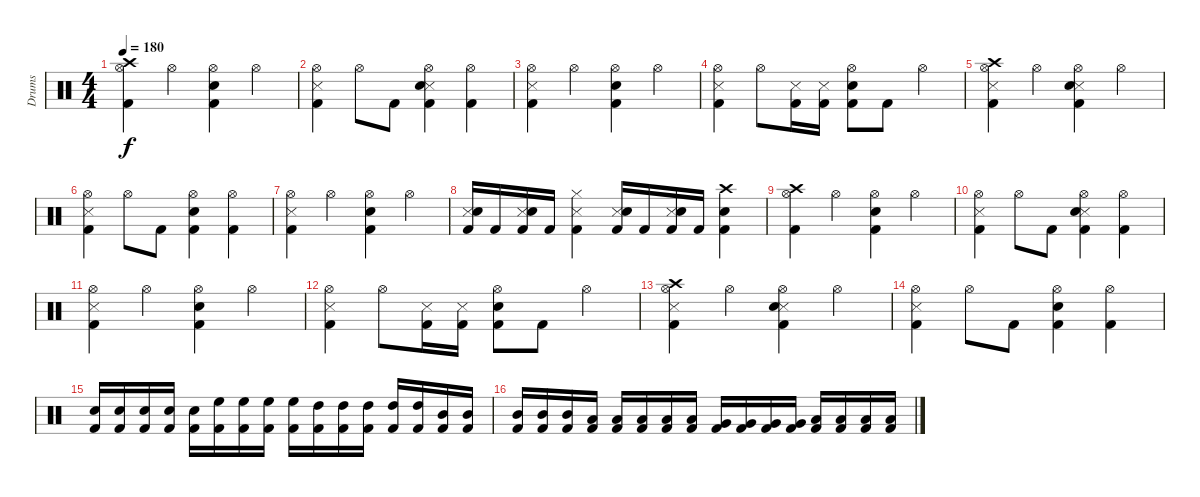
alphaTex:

\track ("Drums" "Drums") {instrument percussion}
\staff {score}
\articulation defaults
\ts (4 4)
\tempo 180
\clef neutral
\ks c
("Crash high (hit)" "Hi-Hat (open)" "Kick (hit) 2").4{dy f} "Hi-Hat (open)".4 ("Hi-Hat (open)" "Electric Snare (hit)" "Kick (hit) 2").4 "Hi-Hat (open)".4 |
("Snare (side stick) 3" "Hi-Hat (open)" "Kick (hit) 2").4 "Hi-Hat (open)".8 "Kick (hit) 2".8 ("Snare (side stick) 3" "Hi-Hat (open)" "Electric Snare (hit)" "Kick (hit) 2").4 ("Hi-Hat (open)" "Kick (hit) 2").4 |
("Snare (side stick) 3" "Hi-Hat (open)" "Kick (hit) 2").4 "Hi-Hat (open)".4 ("Hi-Hat (open)" "Electric Snare (hit)" "Kick (hit) 2").4 "Hi-Hat (open)".4 |
("Snare (side stick) 3" "Hi-Hat (open)" "Kick (hit) 2").4 "Hi-Hat (open)".8 ("Snare (side stick) 3" "Kick (hit) 2").16 ("Snare (side stick) 3" "Kick (hit) 2").16 ("Hi-Hat (open)" "Electric Snare (hit)" "Kick (hit) 2").8 "Kick (hit) 2".8 "Hi-Hat (open)".4 |
("Crash high (hit)" "Snare (side stick) 3" "Hi-Hat (open)" "Kick (hit) 2").4 "Hi-Hat (open)".4 ("Snare (side stick) 3" "Hi-Hat (open)" "Electric Snare (hit)" "Kick (hit) 2").4 "Hi-Hat (open)".4 |
("Snare (side stick) 3" "Hi-Hat (open)" "Kick (hit) 2").4 "Hi-Hat (open)".8 "Kick (hit) 2".8 ("Hi-Hat (open)" "Electric Snare (hit)" "Kick (hit) 2").4 ("Hi-Hat (open)" "Kick (hit) 2").4 |
("Snare (side stick) 3" "Hi-Hat (open)" "Kick (hit) 2").4 "Hi-Hat (open)".4 ("Hi-Hat (open)" "Electric Snare (hit)" "Kick (hit) 2").4 "Hi-Hat (open)".4 |
("Snare (side stick) 3" "Electric Snare (hit)" "Kick (hit) 2").16 "Kick (hit) 2".16 ("Snare (side stick) 3" "Electric Snare (hit)" "Kick (hit) 2").16 "Kick (hit) 2".16 ("Snare (side stick) 3" "Hi-Hat (closed)" "Kick (hit) 2").4 ("Snare (side stick) 3" "Electric Snare (hit)" "Kick (hit) 2").16 "Kick (hit) 2".16 ("Snare (side stick) 3" "Electric Snare (hit)" "Kick (hit) 2").16 "Kick (hit) 2".16 ("Crash high (hit)" "Electric Snare (hit)" "Kick (hit) 2").4 |
("Crash high (hit)" "Hi-Hat (open)" "Kick (hit) 2").4 "Hi-Hat (open)".4 ("Hi-Hat (open)" "Electric Snare (hit)" "Kick (hit) 2").4 "Hi-Hat (open)".4 |
("Snare (side stick) 3" "Hi-Hat (open)" "Kick (hit) 2").4 "Hi-Hat (open)".8 "Kick (hit) 2".8 ("Snare (side stick) 3" "Hi-Hat (open)" "Electric Snare (hit)" "Kick (hit) 2").4 ("Hi-Hat (open)" "Kick (hit) 2").4 |
("Snare (side stick) 3" "Hi-Hat (open)" "Kick (hit) 2").4 "Hi-Hat (open)".4 ("Hi-Hat (open)" "Electric Snare (hit)" "Kick (hit) 2").4 "Hi-Hat (open)".4 |
("Snare (side stick) 3" "Hi-Hat (open)" "Kick (hit) 2").4 "Hi-Hat (open)".8 ("Snare (side stick) 3" "Kick (hit) 2").16 ("Snare (side stick) 3" "Kick (hit) 2").16 ("Hi-Hat (open)" "Electric Snare (hit)" "Kick (hit) 2").8 "Kick (hit) 2".8 "Hi-Hat (open)".4 |
("Crash high (hit)" "Snare (side stick) 3" "Hi-Hat (open)" "Kick (hit) 2").4 "Hi-Hat (open)".4 ("Snare (side stick) 3" "Hi-Hat (open)" "Electric Snare (hit)" "Kick (hit) 2").4 "Hi-Hat (open)".4 |
("Snare (side stick) 3" "Hi-Hat (open)" "Kick (hit) 2").4 "Hi-Hat (open)".8 "Kick (hit) 2".8 ("Hi-Hat (open)" "Electric Snare (hit)" "Kick (hit) 2").4 ("Hi-Hat (open)" "Kick (hit) 2").4 |
("Electric Snare (hit)" "Kick (hit) 2").16 ("Electric Snare (hit)" "Kick (hit) 2").16 ("Electric Snare (hit)" "Kick (hit) 2").16 ("Electric Snare (hit)" "Kick (hit) 2").16 ("Electric Snare (hit)" "Kick (hit) 2").16 ("High Floor Tom (hit)" "Kick (hit) 2").16 ("High Floor Tom (hit)" "Kick (hit) 2").16 ("High Floor Tom (hit)" "Kick (hit) 2").16 ("High Floor Tom (hit)" "Kick (hit) 2").16 ("High Tom (hit)" "Kick (hit) 2").16 ("High Tom (hit)" "Kick (hit) 2").16 ("High Tom (hit)" "Kick (hit) 2").16 ("High Tom (hit)" "Kick (hit) 2").16 ("High Tom (hit)" "Kick (hit) 2").16 ("Mid Tom (hit)" "Kick (hit) 2").16 ("Mid Tom (hit)" "Kick (hit) 2").16 |
("Mid Tom (hit)" "Kick (hit) 2").16 ("Mid Tom (hit)" "Kick (hit) 2").16 ("Mid Tom (hit)" "Kick (hit) 2").16 ("Low Tom (hit)" "Kick (hit) 2").16 ("Low Tom (hit)" "Kick (hit) 2").16 ("Low Tom (hit)" "Kick (hit) 2").16 ("Low Tom (hit)" "Kick (hit) 2").16 ("Low Tom (hit)" "Kick (hit) 2").16 ("Very Low Tom (hit)" "Kick (hit) 2").16 ("Very Low Tom (hit)" "Kick (hit) 2").16 ("Very Low Tom (hit)" "Kick (hit) 2").16 ("Very Low Tom (hit)" "Kick (hit) 2").16 ("Low Floor Tom (hit)" "Kick (hit) 2").16 ("Low Floor Tom (hit)" "Kick (hit) 2").16 ("Low Floor Tom (hit)" "Kick (hit) 2").16 ("Low Floor Tom (hit)" "Kick (hit) 2").16
